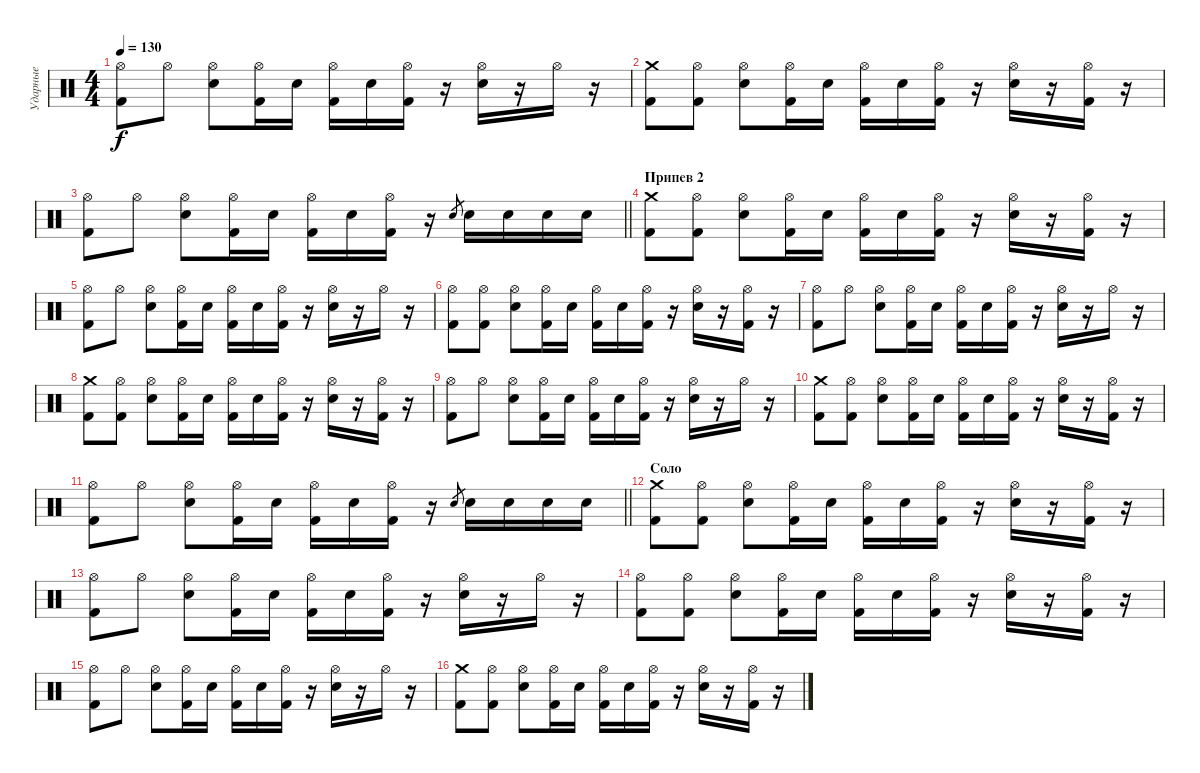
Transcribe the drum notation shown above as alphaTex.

\track ("Ударные" "Ударные") {instrument percussion}
\staff {score}
\articulation defaults
\ts (4 4)
\tempo 130
\clef neutral
\ks c
("Kick (hit) 2" "Hi-Hat (open)").8{dy f} "Hi-Hat (open)".8 ("Electric Snare (hit)" "Hi-Hat (open)").8 ("Kick (hit) 2" "Hi-Hat (open)").16 "Electric Snare (hit)".16 ("Hi-Hat (open)" "Kick (hit) 2").16 "Electric Snare (hit)".16 ("Hi-Hat (open)" "Kick (hit) 2").16 r.16 ("Electric Snare (hit)" "Hi-Hat (open)").16 r.16 "Hi-Hat (open)".16 r.16 |
("Kick (hit) 2" "Crash medium (hit)").8 ("Kick (hit) 2" "Hi-Hat (open)").8 ("Electric Snare (hit)" "Hi-Hat (open)").8 ("Kick (hit) 2" "Hi-Hat (open)").16 "Electric Snare (hit)".16 ("Hi-Hat (open)" "Kick (hit) 2").16 "Electric Snare (hit)".16 ("Hi-Hat (open)" "Kick (hit) 2").16 r.16 ("Electric Snare (hit)" "Hi-Hat (open)").16 r.16 ("Kick (hit) 2" "Hi-Hat (open)").16 r.16 |
\barLineRight lightlight
("Kick (hit) 2" "Hi-Hat (open)").8 "Hi-Hat (open)".8 ("Electric Snare (hit)" "Hi-Hat (open)").8 ("Kick (hit) 2" "Hi-Hat (open)").16 "Electric Snare (hit)".16 ("Hi-Hat (open)" "Kick (hit) 2").16 "Electric Snare (hit)".16 ("Hi-Hat (open)" "Kick (hit) 2").16 r.16 "Electric Snare (hit)".8{gr} "Electric Snare (hit)".16 "Electric Snare (hit)".16 "Electric Snare (hit)".16 "Electric Snare (hit)".16 |
\section ("" "Припев 2")
("Kick (hit) 2" "Crash medium (hit)").8 ("Kick (hit) 2" "Hi-Hat (open)").8 ("Electric Snare (hit)" "Hi-Hat (open)").8 ("Kick (hit) 2" "Hi-Hat (open)").16 "Electric Snare (hit)".16 ("Hi-Hat (open)" "Kick (hit) 2").16 "Electric Snare (hit)".16 ("Hi-Hat (open)" "Kick (hit) 2").16 r.16 ("Electric Snare (hit)" "Hi-Hat (open)").16 r.16 ("Kick (hit) 2" "Hi-Hat (open)").16 r.16 |
("Kick (hit) 2" "Hi-Hat (open)").8 "Hi-Hat (open)".8 ("Electric Snare (hit)" "Hi-Hat (open)").8 ("Kick (hit) 2" "Hi-Hat (open)").16 "Electric Snare (hit)".16 ("Hi-Hat (open)" "Kick (hit) 2").16 "Electric Snare (hit)".16 ("Hi-Hat (open)" "Kick (hit) 2").16 r.16 ("Electric Snare (hit)" "Hi-Hat (open)").16 r.16 "Hi-Hat (open)".16 r.16 |
("Kick (hit) 2" "Hi-Hat (open)").8 ("Kick (hit) 2" "Hi-Hat (open)").8 ("Electric Snare (hit)" "Hi-Hat (open)").8 ("Kick (hit) 2" "Hi-Hat (open)").16 "Electric Snare (hit)".16 ("Hi-Hat (open)" "Kick (hit) 2").16 "Electric Snare (hit)".16 ("Hi-Hat (open)" "Kick (hit) 2").16 r.16 ("Electric Snare (hit)" "Hi-Hat (open)").16 r.16 ("Kick (hit) 2" "Hi-Hat (open)").16 r.16 |
("Kick (hit) 2" "Hi-Hat (open)").8 "Hi-Hat (open)".8 ("Electric Snare (hit)" "Hi-Hat (open)").8 ("Kick (hit) 2" "Hi-Hat (open)").16 "Electric Snare (hit)".16 ("Hi-Hat (open)" "Kick (hit) 2").16 "Electric Snare (hit)".16 ("Hi-Hat (open)" "Kick (hit) 2").16 r.16 ("Electric Snare (hit)" "Hi-Hat (open)").16 r.16 "Hi-Hat (open)".16 r.16 |
("Kick (hit) 2" "Crash medium (hit)").8 ("Kick (hit) 2" "Hi-Hat (open)").8 ("Electric Snare (hit)" "Hi-Hat (open)").8 ("Kick (hit) 2" "Hi-Hat (open)").16 "Electric Snare (hit)".16 ("Hi-Hat (open)" "Kick (hit) 2").16 "Electric Snare (hit)".16 ("Hi-Hat (open)" "Kick (hit) 2").16 r.16 ("Electric Snare (hit)" "Hi-Hat (open)").16 r.16 ("Kick (hit) 2" "Hi-Hat (open)").16 r.16 |
("Kick (hit) 2" "Hi-Hat (open)").8 "Hi-Hat (open)".8 ("Electric Snare (hit)" "Hi-Hat (open)").8 ("Kick (hit) 2" "Hi-Hat (open)").16 "Electric Snare (hit)".16 ("Hi-Hat (open)" "Kick (hit) 2").16 "Electric Snare (hit)".16 ("Hi-Hat (open)" "Kick (hit) 2").16 r.16 ("Electric Snare (hit)" "Hi-Hat (open)").16 r.16 "Hi-Hat (open)".16 r.16 |
("Kick (hit) 2" "Crash medium (hit)").8 ("Kick (hit) 2" "Hi-Hat (open)").8 ("Electric Snare (hit)" "Hi-Hat (open)").8 ("Kick (hit) 2" "Hi-Hat (open)").16 "Electric Snare (hit)".16 ("Hi-Hat (open)" "Kick (hit) 2").16 "Electric Snare (hit)".16 ("Hi-Hat (open)" "Kick (hit) 2").16 r.16 ("Electric Snare (hit)" "Hi-Hat (open)").16 r.16 ("Kick (hit) 2" "Hi-Hat (open)").16 r.16 |
\barLineRight lightlight
("Kick (hit) 2" "Hi-Hat (open)").8 "Hi-Hat (open)".8 ("Electric Snare (hit)" "Hi-Hat (open)").8 ("Kick (hit) 2" "Hi-Hat (open)").16 "Electric Snare (hit)".16 ("Hi-Hat (open)" "Kick (hit) 2").16 "Electric Snare (hit)".16 ("Hi-Hat (open)" "Kick (hit) 2").16 r.16 "Electric Snare (hit)".8{gr} "Electric Snare (hit)".16 "Electric Snare (hit)".16 "Electric Snare (hit)".16 "Electric Snare (hit)".16 |
\section ("" "Соло")
("Kick (hit) 2" "Crash medium (hit)").8 ("Kick (hit) 2" "Hi-Hat (open)").8 ("Electric Snare (hit)" "Hi-Hat (open)").8 ("Kick (hit) 2" "Hi-Hat (open)").16 "Electric Snare (hit)".16 ("Hi-Hat (open)" "Kick (hit) 2").16 "Electric Snare (hit)".16 ("Hi-Hat (open)" "Kick (hit) 2").16 r.16 ("Electric Snare (hit)" "Hi-Hat (open)").16 r.16 ("Kick (hit) 2" "Hi-Hat (open)").16 r.16 |
("Kick (hit) 2" "Hi-Hat (open)").8 "Hi-Hat (open)".8 ("Electric Snare (hit)" "Hi-Hat (open)").8 ("Kick (hit) 2" "Hi-Hat (open)").16 "Electric Snare (hit)".16 ("Hi-Hat (open)" "Kick (hit) 2").16 "Electric Snare (hit)".16 ("Hi-Hat (open)" "Kick (hit) 2").16 r.16 ("Electric Snare (hit)" "Hi-Hat (open)").16 r.16 "Hi-Hat (open)".16 r.16 |
("Kick (hit) 2" "Hi-Hat (open)").8 ("Kick (hit) 2" "Hi-Hat (open)").8 ("Electric Snare (hit)" "Hi-Hat (open)").8 ("Kick (hit) 2" "Hi-Hat (open)").16 "Electric Snare (hit)".16 ("Hi-Hat (open)" "Kick (hit) 2").16 "Electric Snare (hit)".16 ("Hi-Hat (open)" "Kick (hit) 2").16 r.16 ("Electric Snare (hit)" "Hi-Hat (open)").16 r.16 ("Kick (hit) 2" "Hi-Hat (open)").16 r.16 |
("Kick (hit) 2" "Hi-Hat (open)").8 "Hi-Hat (open)".8 ("Electric Snare (hit)" "Hi-Hat (open)").8 ("Kick (hit) 2" "Hi-Hat (open)").16 "Electric Snare (hit)".16 ("Hi-Hat (open)" "Kick (hit) 2").16 "Electric Snare (hit)".16 ("Hi-Hat (open)" "Kick (hit) 2").16 r.16 ("Electric Snare (hit)" "Hi-Hat (open)").16 r.16 "Hi-Hat (open)".16 r.16 |
("Kick (hit) 2" "Crash medium (hit)").8 ("Kick (hit) 2" "Hi-Hat (open)").8 ("Electric Snare (hit)" "Hi-Hat (open)").8 ("Kick (hit) 2" "Hi-Hat (open)").16 "Electric Snare (hit)".16 ("Hi-Hat (open)" "Kick (hit) 2").16 "Electric Snare (hit)".16 ("Hi-Hat (open)" "Kick (hit) 2").16 r.16 ("Electric Snare (hit)" "Hi-Hat (open)").16 r.16 ("Kick (hit) 2" "Hi-Hat (open)").16 r.16
